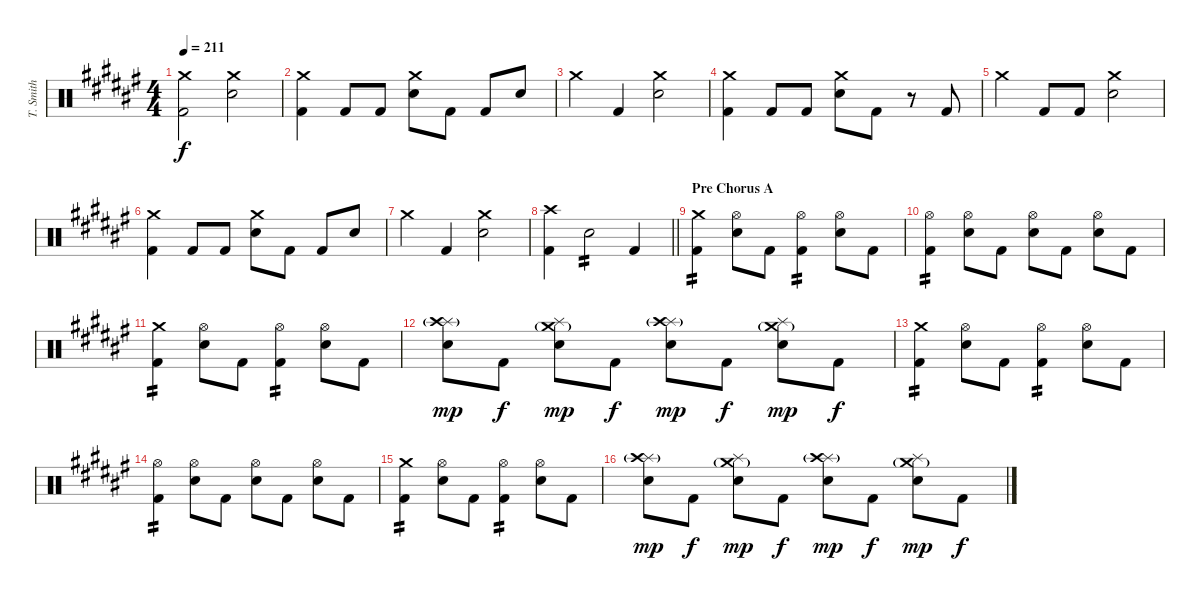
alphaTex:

\track ("T. Smith" "T. Smith") {instrument percussion}
\staff {score}
\articulation defaults
\ts (4 4)
\tempo 211
\clef neutral
\ks d#minor
("Crash medium (hit)" "Kick (hit) 2").2{dy f} ("Crash medium (hit)" "Electric Snare (hit)").2 |
("Crash medium (hit)" "Kick (hit) 2").4 "Kick (hit) 2".8 "Kick (hit) 2".8 ("Crash medium (hit)" "Electric Snare (hit)").8 "Kick (hit) 2".8 "Kick (hit) 2".8 "Electric Snare (hit)".8 |
"Crash medium (hit)".4 "Kick (hit) 2".4 ("Crash medium (hit)" "Electric Snare (hit)").2 |
("Crash medium (hit)" "Kick (hit) 2").4 "Kick (hit) 2".8 "Kick (hit) 2".8 ("Crash medium (hit)" "Electric Snare (hit)").8 "Kick (hit) 2".8 r.8 "Kick (hit) 2".8 |
"Crash medium (hit)".4 "Kick (hit) 2".8 "Kick (hit) 2".8 ("Crash medium (hit)" "Electric Snare (hit)").2 |
("Crash medium (hit)" "Kick (hit) 2").4 "Kick (hit) 2".8 "Kick (hit) 2".8 ("Crash medium (hit)" "Electric Snare (hit)").8 "Kick (hit) 2".8 "Kick (hit) 2".8 "Electric Snare (hit)".8 |
"Crash medium (hit)".4 "Kick (hit) 2".4 ("Crash medium (hit)" "Electric Snare (hit)").2 |
\barLineRight lightlight
("Crash high (hit)" "Kick (hit) 2").4 "Electric Snare (hit)".2{tp 2} "Kick (hit) 2".4 |
\section ("" "Pre Chorus A")
("Crash medium (hit)" "Kick (hit) 2").4{tp 2} ("Hi-Hat (open)" "Electric Snare (hit)").8 "Kick (hit) 2".8 ("Hi-Hat (open)" "Kick (hit) 2").4{tp 2} ("Hi-Hat (open)" "Electric Snare (hit)").8 "Kick (hit) 2".8 |
("Hi-Hat (open)" "Kick (hit) 2").4{tp 2} ("Hi-Hat (open)" "Electric Snare (hit)").8 "Kick (hit) 2".8 ("Hi-Hat (open)" "Electric Snare (hit)").8 "Kick (hit) 2".8 ("Hi-Hat (open)" "Electric Snare (hit)").8 "Kick (hit) 2".8 |
("Crash medium (hit)" "Kick (hit) 2").4{tp 2} ("Hi-Hat (open)" "Electric Snare (hit)").8 "Kick (hit) 2".8 ("Hi-Hat (open)" "Kick (hit) 2").4{tp 2} ("Hi-Hat (open)" "Electric Snare (hit)").8 "Kick (hit) 2".8 |
("Splash (hit)" "Crash high (hit)"{g} "Electric Snare (hit)").8{dy mp} "Kick (hit) 2".8{dy f} ("Splash (hit)" "Crash medium (hit)"{g} "Electric Snare (hit)").8{dy mp} "Kick (hit) 2".8{dy f} ("Splash (hit)" "Crash high (hit)"{g} "Electric Snare (hit)").8{dy mp} "Kick (hit) 2".8{dy f} ("Splash (hit)" "Crash medium (hit)"{g} "Electric Snare (hit)").8{dy mp} "Kick (hit) 2".8{dy f} |
("Crash medium (hit)" "Kick (hit) 2").4{tp 2} ("Hi-Hat (open)" "Electric Snare (hit)").8 "Kick (hit) 2".8 ("Hi-Hat (open)" "Kick (hit) 2").4{tp 2} ("Hi-Hat (open)" "Electric Snare (hit)").8 "Kick (hit) 2".8 |
("Hi-Hat (open)" "Kick (hit) 2").4{tp 2} ("Hi-Hat (open)" "Electric Snare (hit)").8 "Kick (hit) 2".8 ("Hi-Hat (open)" "Electric Snare (hit)").8 "Kick (hit) 2".8 ("Hi-Hat (open)" "Electric Snare (hit)").8 "Kick (hit) 2".8 |
("Crash medium (hit)" "Kick (hit) 2").4{tp 2} ("Hi-Hat (open)" "Electric Snare (hit)").8 "Kick (hit) 2".8 ("Hi-Hat (open)" "Kick (hit) 2").4{tp 2} ("Hi-Hat (open)" "Electric Snare (hit)").8 "Kick (hit) 2".8 |
("Splash (hit)" "Crash high (hit)"{g} "Electric Snare (hit)").8{dy mp} "Kick (hit) 2".8{dy f} ("Splash (hit)" "Crash medium (hit)"{g} "Electric Snare (hit)").8{dy mp} "Kick (hit) 2".8{dy f} ("Splash (hit)" "Crash high (hit)"{g} "Electric Snare (hit)").8{dy mp} "Kick (hit) 2".8{dy f} ("Splash (hit)" "Crash medium (hit)"{g} "Electric Snare (hit)").8{dy mp} "Kick (hit) 2".8{dy f}
